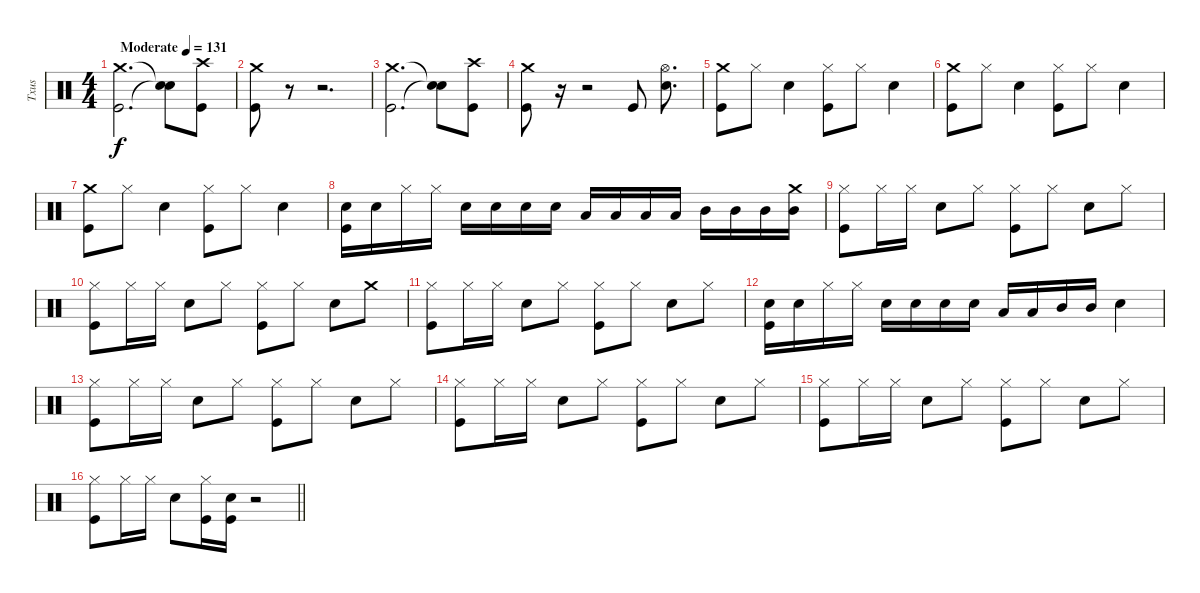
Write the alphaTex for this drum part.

\track ("Txus" "Txus") {instrument percussion}
\staff {score}
\articulation defaults
\ts (4 4)
\tempo (131 "Moderate")
\clef neutral
\ks c
("Crash medium (hit)" "Kick (hit)").2{d dy f} ("Snare (hit)"{t} "Snare (hit)"{t}).8 ("Crash high (hit)" "Kick (hit)").8 |
("Crash medium (hit)" "Kick (hit)").8 r.8 r.2{d} |
("Crash medium (hit)" "Kick (hit)").2{d} ("Snare (hit)"{t} "Snare (hit)"{t}).8 ("Crash high (hit)" "Kick (hit)").8 |
("Crash medium (hit)" "Kick (hit)").8 r.16 r.2 "Kick (hit)".8 ("Hi-Hat (open)" "Electric Snare (hit)").8{d} |
("Crash medium (hit)" "Kick (hit)").8 "Hi-Hat (closed)".8 "Electric Snare (hit)".4 ("Hi-Hat (closed)" "Kick (hit)").8 "Hi-Hat (closed)".8 "Electric Snare (hit)".4 |
("Crash medium (hit)" "Kick (hit)").8 "Hi-Hat (closed)".8 "Electric Snare (hit)".4 ("Hi-Hat (closed)" "Kick (hit)").8 "Hi-Hat (closed)".8 "Electric Snare (hit)".4 |
("Crash medium (hit)" "Kick (hit)").8 "Hi-Hat (closed)".8 "Electric Snare (hit)".4 ("Hi-Hat (closed)" "Kick (hit)").8 "Hi-Hat (closed)".8 "Electric Snare (hit)".4 |
("Electric Snare (hit)" "Kick (hit)").16 "Electric Snare (hit)".16 "Hi-Hat (closed)".16 "Hi-Hat (closed)".16 "Electric Snare (hit)".16 "Electric Snare (hit)".16 "Electric Snare (hit)".16 "Electric Snare (hit)".16 "Low Tom (hit)".16 "Low Tom (hit)".16 "Low Tom (hit)".16 "Low Tom (hit)".16 "Mid Tom (hit)".16 "Mid Tom (hit)".16 "Mid Tom (hit)".16 ("Crash medium (hit)" "Mid Tom (hit)").16 |
("Hi-Hat (closed)" "Kick (hit)").8 "Hi-Hat (closed)".16 "Hi-Hat (closed)".16 "Electric Snare (hit)".8 "Hi-Hat (closed)".8 ("Hi-Hat (closed)" "Kick (hit)").8 "Hi-Hat (closed)".8 "Electric Snare (hit)".8 "Hi-Hat (closed)".8 |
("Hi-Hat (closed)" "Kick (hit)").8 "Hi-Hat (closed)".16 "Hi-Hat (closed)".16 "Electric Snare (hit)".8 "Hi-Hat (closed)".8 ("Hi-Hat (closed)" "Kick (hit)").8 "Hi-Hat (closed)".8 "Electric Snare (hit)".8 "Crash medium (hit)".8 |
("Hi-Hat (closed)" "Kick (hit)").8 "Hi-Hat (closed)".16 "Hi-Hat (closed)".16 "Electric Snare (hit)".8 "Hi-Hat (closed)".8 ("Hi-Hat (closed)" "Kick (hit)").8 "Hi-Hat (closed)".8 "Electric Snare (hit)".8 "Hi-Hat (closed)".8 |
("Electric Snare (hit)" "Kick (hit)").16 "Electric Snare (hit)".16 "Hi-Hat (closed)".16 "Hi-Hat (closed)".16 "Electric Snare (hit)".16 "Electric Snare (hit)".16 "Electric Snare (hit)".16 "Electric Snare (hit)".16 "Low Tom (hit)".16 "Low Tom (hit)".16 "Mid Tom (hit)".16 "Mid Tom (hit)".16 "Electric Snare (hit)".4 |
("Hi-Hat (closed)" "Kick (hit)").8 "Hi-Hat (closed)".16 "Hi-Hat (closed)".16 "Electric Snare (hit)".8 "Hi-Hat (closed)".8 ("Hi-Hat (closed)" "Kick (hit)").8 "Hi-Hat (closed)".8 "Electric Snare (hit)".8 "Hi-Hat (closed)".8 |
("Hi-Hat (closed)" "Kick (hit)").8 "Hi-Hat (closed)".16 "Hi-Hat (closed)".16 "Electric Snare (hit)".8 "Hi-Hat (closed)".8 ("Hi-Hat (closed)" "Kick (hit)").8 "Hi-Hat (closed)".8 "Electric Snare (hit)".8 "Hi-Hat (closed)".8 |
("Hi-Hat (closed)" "Kick (hit)").8 "Hi-Hat (closed)".16 "Hi-Hat (closed)".16 "Electric Snare (hit)".8 "Hi-Hat (closed)".8 ("Hi-Hat (closed)" "Kick (hit)").8 "Hi-Hat (closed)".8 "Electric Snare (hit)".8 "Hi-Hat (closed)".8 |
\barLineRight lightlight
("Hi-Hat (closed)" "Kick (hit)").8 "Hi-Hat (closed)".16 "Hi-Hat (closed)".16 "Electric Snare (hit)".8 ("Hi-Hat (closed)" "Kick (hit)").16 ("Electric Snare (hit)" "Kick (hit)").16 r.2
